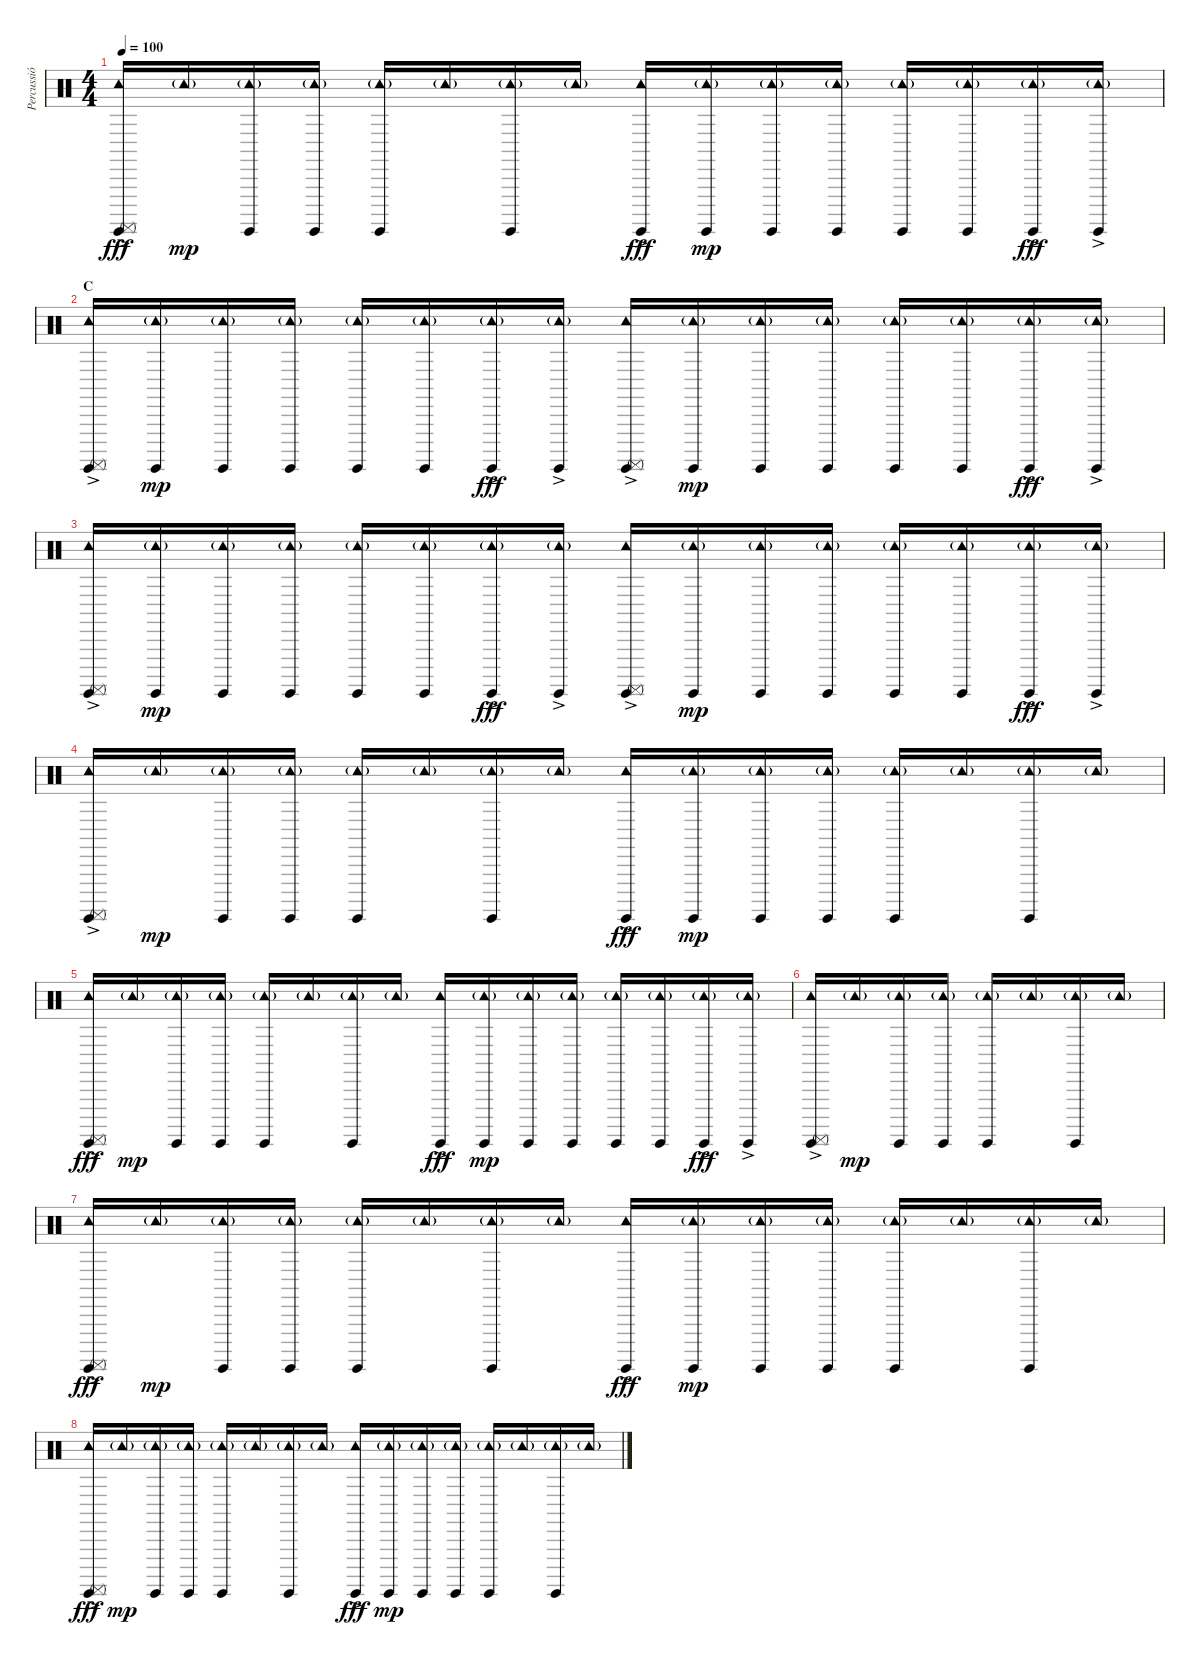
\track ("Percussió" "Percussió") {instrument percussion}
\staff {score}
\articulation defaults
\ts (4 4)
\tempo 100
\clef neutral
\ks c
("Tambourine (hit)"{ac} "Surdo (hit)" "Surdo (mute)"{ac}).16{dy fff} "Tambourine (hit)"{g}.16{dy mp} ("Tambourine (hit)"{g} "Surdo (hit)").16 ("Tambourine (hit)"{g} "Surdo (hit)").16 ("Tambourine (hit)"{g} "Surdo (hit)").16 "Tambourine (hit)"{g}.16 ("Tambourine (hit)"{g} "Surdo (hit)").16 "Tambourine (hit)"{g}.16 ("Tambourine (hit)"{ac} "Surdo (hit)"{ac}).16{dy fff} ("Tambourine (hit)"{g} "Surdo (hit)").16{dy mp} ("Tambourine (hit)"{g} "Surdo (hit)").16 ("Tambourine (hit)"{g} "Surdo (hit)").16 ("Tambourine (hit)"{g} "Surdo (hit)").16 ("Tambourine (hit)"{g} "Surdo (hit)").16 ("Tambourine (hit)"{g} "Surdo (hit)"{ac}).16{dy fff} ("Tambourine (hit)"{g} "Surdo (hit)"{ac}).16 |
\section ("" "C")
("Tambourine (hit)"{ac} "Surdo (hit)" "Surdo (mute)"{ac}).16 ("Tambourine (hit)"{g} "Surdo (hit)").16{dy mp} ("Tambourine (hit)"{g} "Surdo (hit)").16 ("Tambourine (hit)"{g} "Surdo (hit)").16 ("Tambourine (hit)"{g} "Surdo (hit)").16 ("Tambourine (hit)"{g} "Surdo (hit)").16 ("Tambourine (hit)"{g} "Surdo (hit)"{ac}).16{dy fff} ("Tambourine (hit)"{g} "Surdo (hit)"{ac}).16 ("Tambourine (hit)"{ac} "Surdo (hit)"{ac} "Surdo (mute)"{ac}).16 ("Tambourine (hit)"{g} "Surdo (hit)").16{dy mp} ("Tambourine (hit)"{g} "Surdo (hit)").16 ("Tambourine (hit)"{g} "Surdo (hit)").16 ("Tambourine (hit)"{g} "Surdo (hit)").16 ("Tambourine (hit)"{g} "Surdo (hit)").16 ("Tambourine (hit)"{g} "Surdo (hit)"{ac}).16{dy fff} ("Tambourine (hit)"{g} "Surdo (hit)"{ac}).16 |
("Tambourine (hit)"{ac} "Surdo (hit)" "Surdo (mute)"{ac}).16 ("Tambourine (hit)"{g} "Surdo (hit)").16{dy mp} ("Tambourine (hit)"{g} "Surdo (hit)").16 ("Tambourine (hit)"{g} "Surdo (hit)").16 ("Tambourine (hit)"{g} "Surdo (hit)").16 ("Tambourine (hit)"{g} "Surdo (hit)").16 ("Tambourine (hit)"{g} "Surdo (hit)"{ac}).16{dy fff} ("Tambourine (hit)"{g} "Surdo (hit)"{ac}).16 ("Tambourine (hit)"{ac} "Surdo (hit)"{ac} "Surdo (mute)"{ac}).16 ("Tambourine (hit)"{g} "Surdo (hit)").16{dy mp} ("Tambourine (hit)"{g} "Surdo (hit)").16 ("Tambourine (hit)"{g} "Surdo (hit)").16 ("Tambourine (hit)"{g} "Surdo (hit)").16 ("Tambourine (hit)"{g} "Surdo (hit)").16 ("Tambourine (hit)"{g} "Surdo (hit)"{ac}).16{dy fff} ("Tambourine (hit)"{g} "Surdo (hit)"{ac}).16 |
("Tambourine (hit)"{ac} "Surdo (hit)" "Surdo (mute)"{ac}).16 "Tambourine (hit)"{g}.16{dy mp} ("Tambourine (hit)"{g} "Surdo (hit)").16 ("Tambourine (hit)"{g} "Surdo (hit)").16 ("Tambourine (hit)"{g} "Surdo (hit)").16 "Tambourine (hit)"{g}.16 ("Tambourine (hit)"{g} "Surdo (hit)").16 "Tambourine (hit)"{g}.16 ("Tambourine (hit)"{ac} "Surdo (hit)"{ac}).16{dy fff} ("Tambourine (hit)"{g} "Surdo (hit)").16{dy mp} ("Tambourine (hit)"{g} "Surdo (hit)").16 ("Tambourine (hit)"{g} "Surdo (hit)").16 ("Tambourine (hit)"{g} "Surdo (hit)").16 "Tambourine (hit)"{g}.16 ("Tambourine (hit)"{g} "Surdo (hit)").16 "Tambourine (hit)"{g}.16 |
("Tambourine (hit)"{ac} "Surdo (hit)" "Surdo (mute)"{ac}).16{dy fff} "Tambourine (hit)"{g}.16{dy mp} ("Tambourine (hit)"{g} "Surdo (hit)").16 ("Tambourine (hit)"{g} "Surdo (hit)").16 ("Tambourine (hit)"{g} "Surdo (hit)").16 "Tambourine (hit)"{g}.16 ("Tambourine (hit)"{g} "Surdo (hit)").16 "Tambourine (hit)"{g}.16 ("Tambourine (hit)"{ac} "Surdo (hit)"{ac}).16{dy fff} ("Tambourine (hit)"{g} "Surdo (hit)").16{dy mp} ("Tambourine (hit)"{g} "Surdo (hit)").16 ("Tambourine (hit)"{g} "Surdo (hit)").16 ("Tambourine (hit)"{g} "Surdo (hit)").16 ("Tambourine (hit)"{g} "Surdo (hit)").16 ("Tambourine (hit)"{g} "Surdo (hit)"{ac}).16{dy fff} ("Tambourine (hit)"{g} "Surdo (hit)"{ac}).16 |
("Tambourine (hit)"{ac} "Surdo (hit)" "Surdo (mute)"{ac}).16 "Tambourine (hit)"{g}.16{dy mp} ("Tambourine (hit)"{g} "Surdo (hit)").16 ("Tambourine (hit)"{g} "Surdo (hit)").16 ("Tambourine (hit)"{g} "Surdo (hit)").16 "Tambourine (hit)"{g}.16 ("Tambourine (hit)"{g} "Surdo (hit)").16 "Tambourine (hit)"{g}.16 |
("Tambourine (hit)"{ac} "Surdo (hit)" "Surdo (mute)"{ac}).16{dy fff} "Tambourine (hit)"{g}.16{dy mp} ("Tambourine (hit)"{g} "Surdo (hit)").16 ("Tambourine (hit)"{g} "Surdo (hit)").16 ("Tambourine (hit)"{g} "Surdo (hit)").16 "Tambourine (hit)"{g}.16 ("Tambourine (hit)"{g} "Surdo (hit)").16 "Tambourine (hit)"{g}.16 ("Tambourine (hit)"{ac} "Surdo (hit)"{ac}).16{dy fff} ("Tambourine (hit)"{g} "Surdo (hit)").16{dy mp} ("Tambourine (hit)"{g} "Surdo (hit)").16 ("Tambourine (hit)"{g} "Surdo (hit)").16 ("Tambourine (hit)"{g} "Surdo (hit)").16 "Tambourine (hit)"{g}.16 ("Tambourine (hit)"{g} "Surdo (hit)").16 "Tambourine (hit)"{g}.16 |
("Tambourine (hit)"{ac} "Surdo (hit)" "Surdo (mute)"{ac}).16{dy fff} "Tambourine (hit)"{g}.16{dy mp} ("Tambourine (hit)"{g} "Surdo (hit)").16 ("Tambourine (hit)"{g} "Surdo (hit)").16 ("Tambourine (hit)"{g} "Surdo (hit)").16 "Tambourine (hit)"{g}.16 ("Tambourine (hit)"{g} "Surdo (hit)").16 "Tambourine (hit)"{g}.16 ("Tambourine (hit)"{ac} "Surdo (hit)"{ac}).16{dy fff} ("Tambourine (hit)"{g} "Surdo (hit)").16{dy mp} ("Tambourine (hit)"{g} "Surdo (hit)").16 ("Tambourine (hit)"{g} "Surdo (hit)").16 ("Tambourine (hit)"{g} "Surdo (hit)").16 "Tambourine (hit)"{g}.16 ("Tambourine (hit)"{g} "Surdo (hit)").16 "Tambourine (hit)"{g}.16
